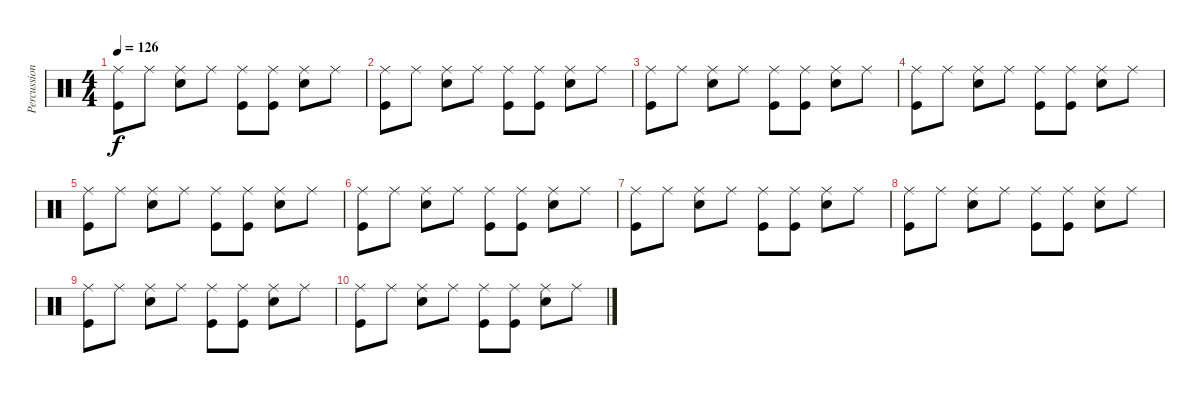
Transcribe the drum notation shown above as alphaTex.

\track ("Percussion" "Percussion") {instrument percussion}
\staff {score}
\articulation defaults
\ts (4 4)
\tempo 126
\clef neutral
\ks c
("Ride (middle)" "Kick (hit)").8{dy f} "Ride (middle)".8 ("Ride (middle)" "Electric Snare (hit)").8 "Ride (middle)".8 ("Ride (middle)" "Kick (hit)").8 ("Ride (middle)" "Kick (hit)").8 ("Ride (middle)" "Electric Snare (hit)").8 "Ride (middle)".8 |
("Ride (middle)" "Kick (hit)").8 "Ride (middle)".8 ("Ride (middle)" "Electric Snare (hit)").8 "Ride (middle)".8 ("Ride (middle)" "Kick (hit)").8 ("Ride (middle)" "Kick (hit)").8 ("Ride (middle)" "Electric Snare (hit)").8 "Ride (middle)".8 |
("Ride (middle)" "Kick (hit)").8 "Ride (middle)".8 ("Ride (middle)" "Electric Snare (hit)").8 "Ride (middle)".8 ("Ride (middle)" "Kick (hit)").8 ("Ride (middle)" "Kick (hit)").8 ("Ride (middle)" "Electric Snare (hit)").8 "Ride (middle)".8 |
("Ride (middle)" "Kick (hit)").8 "Ride (middle)".8 ("Ride (middle)" "Electric Snare (hit)").8 "Ride (middle)".8 ("Ride (middle)" "Kick (hit)").8 ("Ride (middle)" "Kick (hit)").8 ("Ride (middle)" "Electric Snare (hit)").8 "Ride (middle)".8 |
("Ride (middle)" "Kick (hit)").8 "Ride (middle)".8 ("Ride (middle)" "Electric Snare (hit)").8 "Ride (middle)".8 ("Ride (middle)" "Kick (hit)").8 ("Ride (middle)" "Kick (hit)").8 ("Ride (middle)" "Electric Snare (hit)").8 "Ride (middle)".8 |
("Ride (middle)" "Kick (hit)").8 "Ride (middle)".8 ("Ride (middle)" "Electric Snare (hit)").8 "Ride (middle)".8 ("Ride (middle)" "Kick (hit)").8 ("Ride (middle)" "Kick (hit)").8 ("Ride (middle)" "Electric Snare (hit)").8 "Ride (middle)".8 |
("Ride (middle)" "Kick (hit)").8 "Ride (middle)".8 ("Ride (middle)" "Electric Snare (hit)").8 "Ride (middle)".8 ("Ride (middle)" "Kick (hit)").8 ("Ride (middle)" "Kick (hit)").8 ("Ride (middle)" "Electric Snare (hit)").8 "Ride (middle)".8 |
("Ride (middle)" "Kick (hit)").8 "Ride (middle)".8 ("Ride (middle)" "Electric Snare (hit)").8 "Ride (middle)".8 ("Ride (middle)" "Kick (hit)").8 ("Ride (middle)" "Kick (hit)").8 ("Ride (middle)" "Electric Snare (hit)").8 "Ride (middle)".8 |
("Ride (middle)" "Kick (hit)").8 "Ride (middle)".8 ("Ride (middle)" "Electric Snare (hit)").8 "Ride (middle)".8 ("Ride (middle)" "Kick (hit)").8 ("Ride (middle)" "Kick (hit)").8 ("Ride (middle)" "Electric Snare (hit)").8 "Ride (middle)".8 |
("Ride (middle)" "Kick (hit)").8 "Ride (middle)".8 ("Ride (middle)" "Electric Snare (hit)").8 "Ride (middle)".8 ("Ride (middle)" "Kick (hit)").8 ("Ride (middle)" "Kick (hit)").8 ("Ride (middle)" "Electric Snare (hit)").8 "Ride (middle)".8
